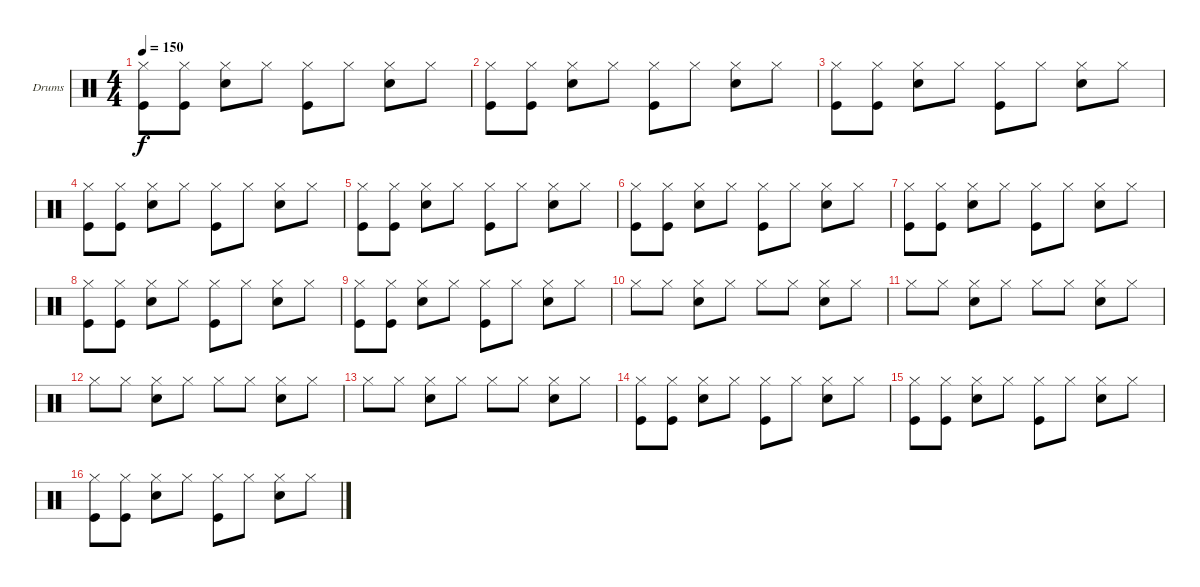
\defaultSystemsLayout 4
\bracketExtendMode groupsimilarinstruments
\firstSystemTrackNameOrientation horizontal
\otherSystemsTrackNameOrientation horizontal
\track ("Drums" "Drums") {instrument percussion}
\staff {score}
\articulation defaults
\ts (4 4)
\tempo 150
\clef neutral
\scale
0.333333
\ks c
("Kick (hit)" "Hi-Hat (closed)").8{dy f} ("Kick (hit)" "Hi-Hat (closed)").8 ("Hi-Hat (closed)" "Snare (hit) 2").8 "Hi-Hat (closed)".8 ("Kick (hit)" "Hi-Hat (closed)").8 "Hi-Hat (closed)".8 ("Hi-Hat (closed)" "Snare (hit) 2").8 "Hi-Hat (closed)".8 |
\scale
0.333333 ("Kick (hit)" "Hi-Hat (closed)").8 ("Kick (hit)" "Hi-Hat (closed)").8 ("Hi-Hat (closed)" "Snare (hit) 2").8 "Hi-Hat (closed)".8 ("Kick (hit)" "Hi-Hat (closed)").8 "Hi-Hat (closed)".8 ("Hi-Hat (closed)" "Snare (hit) 2").8 "Hi-Hat (closed)".8 |
\scale
0.333333 ("Kick (hit)" "Hi-Hat (closed)").8 ("Kick (hit)" "Hi-Hat (closed)").8 ("Hi-Hat (closed)" "Snare (hit) 2").8 "Hi-Hat (closed)".8 ("Kick (hit)" "Hi-Hat (closed)").8 "Hi-Hat (closed)".8 ("Hi-Hat (closed)" "Snare (hit) 2").8 "Hi-Hat (closed)".8 |
\scale
0.333333 ("Kick (hit)" "Hi-Hat (closed)").8 ("Kick (hit)" "Hi-Hat (closed)").8 ("Hi-Hat (closed)" "Snare (hit) 2").8 "Hi-Hat (closed)".8 ("Kick (hit)" "Hi-Hat (closed)").8 "Hi-Hat (closed)".8 ("Hi-Hat (closed)" "Snare (hit) 2").8 "Hi-Hat (closed)".8 |
\scale
0.333333 ("Kick (hit)" "Hi-Hat (closed)").8 ("Kick (hit)" "Hi-Hat (closed)").8 ("Hi-Hat (closed)" "Snare (hit) 2").8 "Hi-Hat (closed)".8 ("Kick (hit)" "Hi-Hat (closed)").8 "Hi-Hat (closed)".8 ("Hi-Hat (closed)" "Snare (hit) 2").8 "Hi-Hat (closed)".8 |
\scale
0.333333 ("Kick (hit)" "Hi-Hat (closed)").8 ("Kick (hit)" "Hi-Hat (closed)").8 ("Hi-Hat (closed)" "Snare (hit) 2").8 "Hi-Hat (closed)".8 ("Kick (hit)" "Hi-Hat (closed)").8 "Hi-Hat (closed)".8 ("Hi-Hat (closed)" "Snare (hit) 2").8 "Hi-Hat (closed)".8 |
\scale
0.333333 ("Kick (hit)" "Hi-Hat (closed)").8 ("Kick (hit)" "Hi-Hat (closed)").8 ("Hi-Hat (closed)" "Snare (hit) 2").8 "Hi-Hat (closed)".8 ("Kick (hit)" "Hi-Hat (closed)").8 "Hi-Hat (closed)".8 ("Hi-Hat (closed)" "Snare (hit) 2").8 "Hi-Hat (closed)".8 |
\scale
0.333333 ("Kick (hit)" "Hi-Hat (closed)").8 ("Kick (hit)" "Hi-Hat (closed)").8 ("Hi-Hat (closed)" "Snare (hit) 2").8 "Hi-Hat (closed)".8 ("Kick (hit)" "Hi-Hat (closed)").8 "Hi-Hat (closed)".8 ("Hi-Hat (closed)" "Snare (hit) 2").8 "Hi-Hat (closed)".8 |
\scale
0.333333 ("Kick (hit)" "Hi-Hat (closed)").8 ("Kick (hit)" "Hi-Hat (closed)").8 ("Hi-Hat (closed)" "Snare (hit) 2").8 "Hi-Hat (closed)".8 ("Kick (hit)" "Hi-Hat (closed)").8 "Hi-Hat (closed)".8 ("Hi-Hat (closed)" "Snare (hit) 2").8 "Hi-Hat (closed)".8 |
\scale
0.333333 "Hi-Hat (closed)".8 "Hi-Hat (closed)".8 ("Hi-Hat (closed)" "Snare (hit) 2").8 "Hi-Hat (closed)".8 "Hi-Hat (closed)".8 "Hi-Hat (closed)".8 ("Hi-Hat (closed)" "Snare (hit) 2").8 "Hi-Hat (closed)".8 |
\scale
0.333333 "Hi-Hat (closed)".8 "Hi-Hat (closed)".8 ("Hi-Hat (closed)" "Snare (hit) 2").8 "Hi-Hat (closed)".8 "Hi-Hat (closed)".8 "Hi-Hat (closed)".8 ("Hi-Hat (closed)" "Snare (hit) 2").8 "Hi-Hat (closed)".8 |
\scale
0.333333 "Hi-Hat (closed)".8 "Hi-Hat (closed)".8 ("Hi-Hat (closed)" "Snare (hit) 2").8 "Hi-Hat (closed)".8 "Hi-Hat (closed)".8 "Hi-Hat (closed)".8 ("Hi-Hat (closed)" "Snare (hit) 2").8 "Hi-Hat (closed)".8 |
\scale
0.333333 "Hi-Hat (closed)".8 "Hi-Hat (closed)".8 ("Hi-Hat (closed)" "Snare (hit) 2").8 "Hi-Hat (closed)".8 "Hi-Hat (closed)".8 "Hi-Hat (closed)".8 ("Hi-Hat (closed)" "Snare (hit) 2").8 "Hi-Hat (closed)".8 |
\scale
0.333333 ("Kick (hit)" "Hi-Hat (closed)").8 ("Kick (hit)" "Hi-Hat (closed)").8 ("Hi-Hat (closed)" "Snare (hit) 2").8 "Hi-Hat (closed)".8 ("Kick (hit)" "Hi-Hat (closed)").8 "Hi-Hat (closed)".8 ("Hi-Hat (closed)" "Snare (hit) 2").8 "Hi-Hat (closed)".8 |
\scale
0.333333 ("Kick (hit)" "Hi-Hat (closed)").8 ("Kick (hit)" "Hi-Hat (closed)").8 ("Hi-Hat (closed)" "Snare (hit) 2").8 "Hi-Hat (closed)".8 ("Kick (hit)" "Hi-Hat (closed)").8 "Hi-Hat (closed)".8 ("Hi-Hat (closed)" "Snare (hit) 2").8 "Hi-Hat (closed)".8 |
\scale
0.333333 ("Kick (hit)" "Hi-Hat (closed)").8 ("Kick (hit)" "Hi-Hat (closed)").8 ("Hi-Hat (closed)" "Snare (hit) 2").8 "Hi-Hat (closed)".8 ("Kick (hit)" "Hi-Hat (closed)").8 "Hi-Hat (closed)".8 ("Hi-Hat (closed)" "Snare (hit) 2").8 "Hi-Hat (closed)".8
